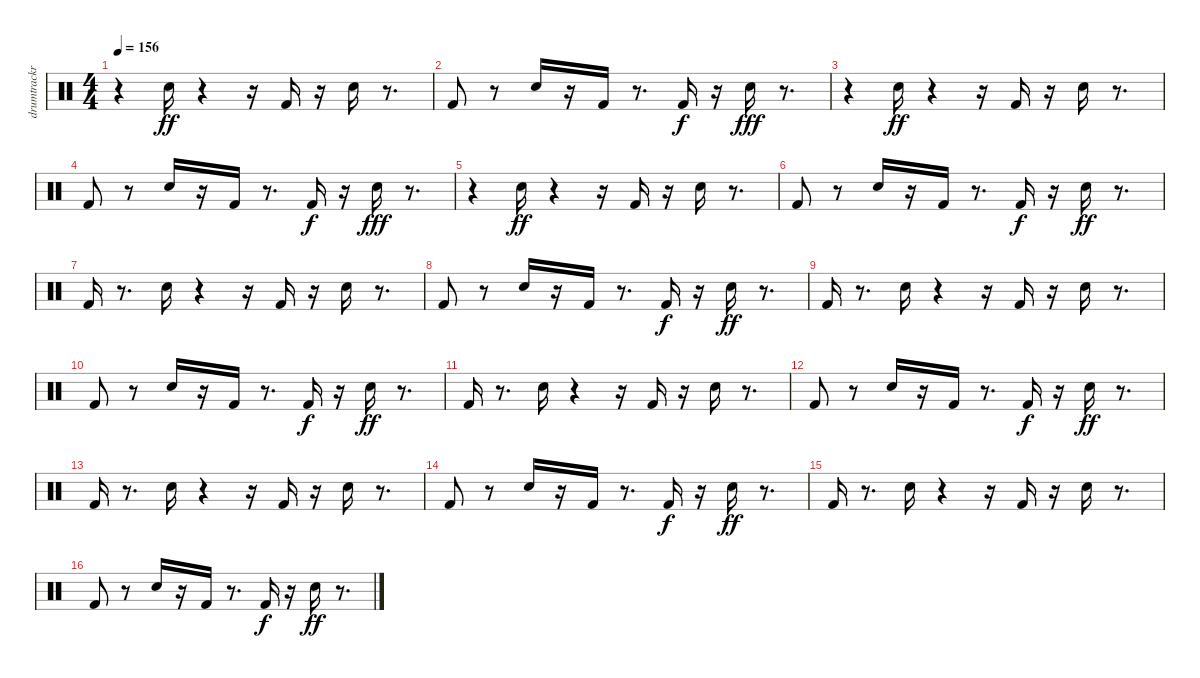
\track ("drumtrackr " "drumtrackr") {instrument percussion}
\staff {score}
\articulation defaults
\ts (4 4)
\tempo 156
\clef neutral
\ks c
r.4{dy fff} "Snare (hit) 2".16{dy ff} r.4 r.16 "Kick (hit) 2".16 r.16 "Snare (hit) 2".16 r.8{d} |
"Kick (hit) 2".8 r.8 "Snare (hit) 2".16 r.16 "Kick (hit) 2".16 r.8{d} "Kick (hit) 2".16{dy f} r.16 "Snare (hit) 2".16{dy fff} r.8{d} |
r.4 "Snare (hit) 2".16{dy ff} r.4 r.16 "Kick (hit) 2".16 r.16 "Snare (hit) 2".16 r.8{d} |
"Kick (hit) 2".8 r.8 "Snare (hit) 2".16 r.16 "Kick (hit) 2".16 r.8{d} "Kick (hit) 2".16{dy f} r.16 "Snare (hit) 2".16{dy fff} r.8{d} |
r.4 "Snare (hit) 2".16{dy ff} r.4 r.16 "Kick (hit) 2".16 r.16 "Snare (hit) 2".16 r.8{d} |
"Kick (hit) 2".8 r.8 "Snare (hit) 2".16 r.16 "Kick (hit) 2".16 r.8{d} "Kick (hit) 2".16{dy f} r.16 "Snare (hit) 2".16{dy ff} r.8{d} |
"Kick (hit) 2".16 r.8{d} "Snare (hit) 2".16 r.4 r.16 "Kick (hit) 2".16 r.16 "Snare (hit) 2".16 r.8{d} |
"Kick (hit) 2".8 r.8 "Snare (hit) 2".16 r.16 "Kick (hit) 2".16 r.8{d} "Kick (hit) 2".16{dy f} r.16 "Snare (hit) 2".16{dy ff} r.8{d} |
"Kick (hit) 2".16 r.8{d} "Snare (hit) 2".16 r.4 r.16 "Kick (hit) 2".16 r.16 "Snare (hit) 2".16 r.8{d} |
"Kick (hit) 2".8 r.8 "Snare (hit) 2".16 r.16 "Kick (hit) 2".16 r.8{d} "Kick (hit) 2".16{dy f} r.16 "Snare (hit) 2".16{dy ff} r.8{d} |
"Kick (hit) 2".16 r.8{d} "Snare (hit) 2".16 r.4 r.16 "Kick (hit) 2".16 r.16 "Snare (hit) 2".16 r.8{d} |
"Kick (hit) 2".8 r.8 "Snare (hit) 2".16 r.16 "Kick (hit) 2".16 r.8{d} "Kick (hit) 2".16{dy f} r.16 "Snare (hit) 2".16{dy ff} r.8{d} |
"Kick (hit) 2".16 r.8{d} "Snare (hit) 2".16 r.4 r.16 "Kick (hit) 2".16 r.16 "Snare (hit) 2".16 r.8{d} |
"Kick (hit) 2".8 r.8 "Snare (hit) 2".16 r.16 "Kick (hit) 2".16 r.8{d} "Kick (hit) 2".16{dy f} r.16 "Snare (hit) 2".16{dy ff} r.8{d} |
"Kick (hit) 2".16 r.8{d} "Snare (hit) 2".16 r.4 r.16 "Kick (hit) 2".16 r.16 "Snare (hit) 2".16 r.8{d} |
"Kick (hit) 2".8 r.8 "Snare (hit) 2".16 r.16 "Kick (hit) 2".16 r.8{d} "Kick (hit) 2".16{dy f} r.16 "Snare (hit) 2".16{dy ff} r.8{d}
